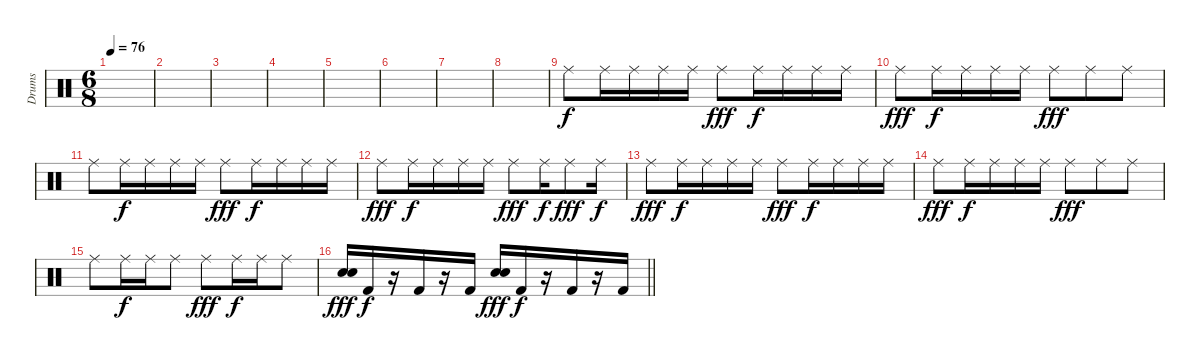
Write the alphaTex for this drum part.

\track ("Drums" "Drums") {instrument percussion}
\staff {score}
\articulation defaults
\ts (6 8)
\tempo 76
\clef neutral
\ks c
|
|
|
|
|
|
|
|
"Ride (middle)".8 "Ride (middle)".16{dy f} "Ride (middle)".16 "Ride (middle)".16 "Ride (middle)".16 "Ride (middle)".8{dy fff} "Ride (middle)".16{dy f} "Ride (middle)".16 "Ride (middle)".16 "Ride (middle)".16 |
"Ride (middle)".8{dy fff} "Ride (middle)".16{dy f} "Ride (middle)".16 "Ride (middle)".16 "Ride (middle)".16 "Ride (middle)".8{dy fff} "Ride (middle)".8 "Ride (middle)".8 |
"Ride (middle)".8 "Ride (middle)".16{dy f} "Ride (middle)".16 "Ride (middle)".16 "Ride (middle)".16 "Ride (middle)".8{dy fff} "Ride (middle)".16{dy f} "Ride (middle)".16 "Ride (middle)".16 "Ride (middle)".16 |
"Ride (middle)".8{dy fff} "Ride (middle)".16{dy f} "Ride (middle)".16 "Ride (middle)".16 "Ride (middle)".16 "Ride (middle)".8{dy fff} "Ride (middle)".16{dy f} "Ride (middle)".8{dy fff} "Ride (middle)".16{dy f} |
"Ride (middle)".8{dy fff} "Ride (middle)".16{dy f} "Ride (middle)".16 "Ride (middle)".16 "Ride (middle)".16 "Ride (middle)".8{dy fff} "Ride (middle)".16{dy f} "Ride (middle)".16 "Ride (middle)".16 "Ride (middle)".16 |
"Ride (middle)".8{dy fff} "Ride (middle)".16{dy f} "Ride (middle)".16 "Ride (middle)".16 "Ride (middle)".16 "Ride (middle)".8{dy fff} "Ride (middle)".8 "Ride (middle)".8 |
"Ride (middle)".8 "Ride (middle)".16{dy f} "Ride (middle)".16 "Ride (middle)".8 "Ride (middle)".8{dy fff} "Ride (middle)".16{dy f} "Ride (middle)".16 "Ride (middle)".8 |
\barLineRight lightlight
("Snare (hit) 2" "Snare (hit) 2").16{dy fff} "Kick (hit) 2".16{dy f} r.16 "Kick (hit) 2".16 r.16 "Kick (hit) 2".16 ("Snare (hit) 2" "Snare (hit) 2").16{dy fff} "Kick (hit) 2".16{dy f} r.16 "Kick (hit) 2".16 r.16 "Kick (hit) 2".16
